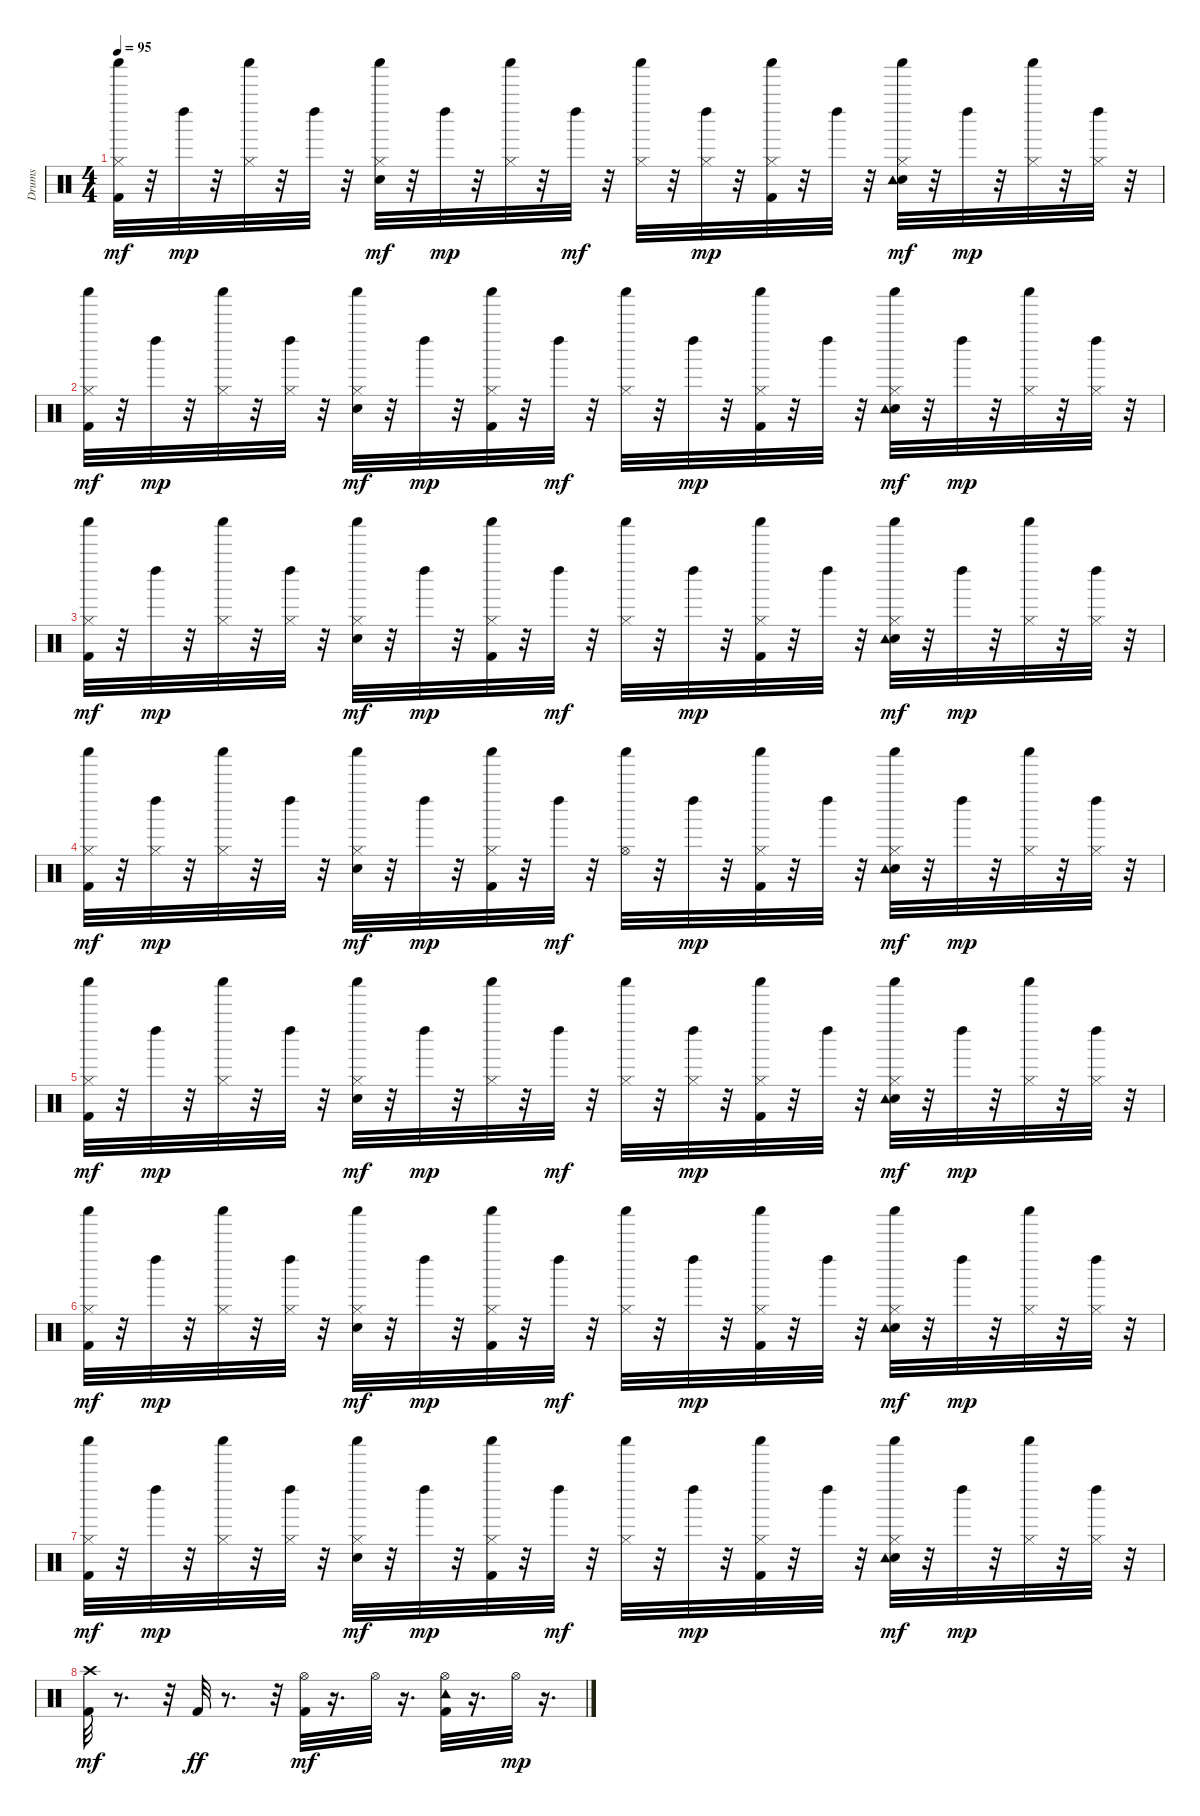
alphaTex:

\track ("Drums" "Drums") {instrument percussion}
\staff {score}
\articulation defaults
\ts (4 4)
\tempo 95
\clef neutral
\ks c
("Kick (hit) 2" "Hi-Hat (closed)" "Shaker (hit)").32{dy mf} r.32 "Left Maraca (hit)".32{dy mp} r.32 ("Hi-Hat (closed)" "Shaker (hit)").32 r.32 "Left Maraca (hit)".32 r.32 ("Electric Snare (hit)" "Hi-Hat (closed)" "Shaker (hit)").32{dy mf} r.32 "Left Maraca (hit)".32{dy mp} r.32 ("Hi-Hat (closed)" "Shaker (hit)").32 r.32 "Left Maraca (hit)".32{dy mf} r.32 ("Hi-Hat (closed)" "Shaker (hit)").32 r.32 ("Hi-Hat (closed)" "Left Maraca (hit)").32{dy mp} r.32 ("Kick (hit) 2" "Hi-Hat (closed)" "Shaker (hit)").32 r.32 "Left Maraca (hit)".32 r.32 ("Electric Snare (hit)" "Hi-Hat (closed)" "Tambourine (hit)" "Shaker (hit)").32{dy mf} r.32 "Left Maraca (hit)".32{dy mp} r.32 ("Hi-Hat (closed)" "Shaker (hit)").32 r.32 ("Hi-Hat (closed)" "Left Maraca (hit)").32 r.32 |
("Kick (hit) 2" "Hi-Hat (closed)" "Shaker (hit)").32{dy mf} r.32 "Left Maraca (hit)".32{dy mp} r.32 ("Hi-Hat (closed)" "Shaker (hit)").32 r.32 ("Hi-Hat (closed)" "Left Maraca (hit)").32 r.32 ("Electric Snare (hit)" "Hi-Hat (closed)" "Shaker (hit)").32{dy mf} r.32 "Left Maraca (hit)".32{dy mp} r.32 ("Kick (hit) 2" "Hi-Hat (closed)" "Shaker (hit)").32 r.32 "Left Maraca (hit)".32{dy mf} r.32 ("Hi-Hat (closed)" "Shaker (hit)").32 r.32 "Left Maraca (hit)".32{dy mp} r.32 ("Kick (hit) 2" "Hi-Hat (closed)" "Shaker (hit)").32 r.32 "Left Maraca (hit)".32 r.32 ("Electric Snare (hit)" "Hi-Hat (closed)" "Tambourine (hit)" "Shaker (hit)").32{dy mf} r.32 "Left Maraca (hit)".32{dy mp} r.32 ("Hi-Hat (closed)" "Shaker (hit)").32 r.32 ("Hi-Hat (closed)" "Left Maraca (hit)").32 r.32 |
("Kick (hit) 2" "Hi-Hat (closed)" "Shaker (hit)").32{dy mf} r.32 "Left Maraca (hit)".32{dy mp} r.32 ("Hi-Hat (closed)" "Shaker (hit)").32 r.32 ("Hi-Hat (closed)" "Left Maraca (hit)").32 r.32 ("Electric Snare (hit)" "Hi-Hat (closed)" "Shaker (hit)").32{dy mf} r.32 "Left Maraca (hit)".32{dy mp} r.32 ("Kick (hit) 2" "Hi-Hat (closed)" "Shaker (hit)").32 r.32 "Left Maraca (hit)".32{dy mf} r.32 ("Hi-Hat (closed)" "Shaker (hit)").32 r.32 "Left Maraca (hit)".32{dy mp} r.32 ("Kick (hit) 2" "Hi-Hat (closed)" "Shaker (hit)").32 r.32 "Left Maraca (hit)".32 r.32 ("Electric Snare (hit)" "Hi-Hat (closed)" "Tambourine (hit)" "Shaker (hit)").32{dy mf} r.32 "Left Maraca (hit)".32{dy mp} r.32 ("Hi-Hat (closed)" "Shaker (hit)").32 r.32 ("Hi-Hat (closed)" "Left Maraca (hit)").32 r.32 |
("Kick (hit) 2" "Hi-Hat (closed)" "Shaker (hit)").32{dy mf} r.32 ("Hi-Hat (closed)" "Left Maraca (hit)").32{dy mp} r.32 ("Hi-Hat (closed)" "Shaker (hit)").32 r.32 "Left Maraca (hit)".32 r.32 ("Electric Snare (hit)" "Hi-Hat (closed)" "Shaker (hit)").32{dy mf} r.32 "Left Maraca (hit)".32{dy mp} r.32 ("Kick (hit) 2" "Hi-Hat (closed)" "Shaker (hit)").32 r.32 "Left Maraca (hit)".32{dy mf} r.32 ("Hi-Hat (open)" "Shaker (hit)").32 r.32 "Left Maraca (hit)".32{dy mp} r.32 ("Kick (hit) 2" "Hi-Hat (closed)" "Shaker (hit)").32 r.32 "Left Maraca (hit)".32 r.32 ("Electric Snare (hit)" "Hi-Hat (closed)" "Tambourine (hit)" "Shaker (hit)").32{dy mf} r.32 "Left Maraca (hit)".32{dy mp} r.32 ("Hi-Hat (closed)" "Shaker (hit)").32 r.32 ("Hi-Hat (closed)" "Left Maraca (hit)").32 r.32 |
("Kick (hit) 2" "Hi-Hat (closed)" "Shaker (hit)").32{dy mf} r.32 "Left Maraca (hit)".32{dy mp} r.32 ("Hi-Hat (closed)" "Shaker (hit)").32 r.32 "Left Maraca (hit)".32 r.32 ("Electric Snare (hit)" "Hi-Hat (closed)" "Shaker (hit)").32{dy mf} r.32 "Left Maraca (hit)".32{dy mp} r.32 ("Hi-Hat (closed)" "Shaker (hit)").32 r.32 "Left Maraca (hit)".32{dy mf} r.32 ("Hi-Hat (closed)" "Shaker (hit)").32 r.32 ("Hi-Hat (closed)" "Left Maraca (hit)").32{dy mp} r.32 ("Kick (hit) 2" "Hi-Hat (closed)" "Shaker (hit)").32 r.32 "Left Maraca (hit)".32 r.32 ("Electric Snare (hit)" "Hi-Hat (closed)" "Tambourine (hit)" "Shaker (hit)").32{dy mf} r.32 "Left Maraca (hit)".32{dy mp} r.32 ("Hi-Hat (closed)" "Shaker (hit)").32 r.32 ("Hi-Hat (closed)" "Left Maraca (hit)").32 r.32 |
("Kick (hit) 2" "Hi-Hat (closed)" "Shaker (hit)").32{dy mf} r.32 "Left Maraca (hit)".32{dy mp} r.32 ("Hi-Hat (closed)" "Shaker (hit)").32 r.32 ("Hi-Hat (closed)" "Left Maraca (hit)").32 r.32 ("Electric Snare (hit)" "Hi-Hat (closed)" "Shaker (hit)").32{dy mf} r.32 "Left Maraca (hit)".32{dy mp} r.32 ("Kick (hit) 2" "Hi-Hat (closed)" "Shaker (hit)").32 r.32 "Left Maraca (hit)".32{dy mf} r.32 ("Hi-Hat (closed)" "Shaker (hit)").32 r.32 "Left Maraca (hit)".32{dy mp} r.32 ("Kick (hit) 2" "Hi-Hat (closed)" "Shaker (hit)").32 r.32 "Left Maraca (hit)".32 r.32 ("Electric Snare (hit)" "Hi-Hat (closed)" "Tambourine (hit)" "Shaker (hit)").32{dy mf} r.32 "Left Maraca (hit)".32{dy mp} r.32 ("Hi-Hat (closed)" "Shaker (hit)").32 r.32 ("Hi-Hat (closed)" "Left Maraca (hit)").32 r.32 |
("Kick (hit) 2" "Hi-Hat (closed)" "Shaker (hit)").32{dy mf} r.32 "Left Maraca (hit)".32{dy mp} r.32 ("Hi-Hat (closed)" "Shaker (hit)").32 r.32 ("Hi-Hat (closed)" "Left Maraca (hit)").32 r.32 ("Electric Snare (hit)" "Hi-Hat (closed)" "Shaker (hit)").32{dy mf} r.32 "Left Maraca (hit)".32{dy mp} r.32 ("Kick (hit) 2" "Hi-Hat (closed)" "Shaker (hit)").32 r.32 "Left Maraca (hit)".32{dy mf} r.32 ("Hi-Hat (closed)" "Shaker (hit)").32 r.32 "Left Maraca (hit)".32{dy mp} r.32 ("Kick (hit) 2" "Hi-Hat (closed)" "Shaker (hit)").32 r.32 "Left Maraca (hit)".32 r.32 ("Electric Snare (hit)" "Hi-Hat (closed)" "Tambourine (hit)" "Shaker (hit)").32{dy mf} r.32 "Left Maraca (hit)".32{dy mp} r.32 ("Hi-Hat (closed)" "Shaker (hit)").32 r.32 ("Hi-Hat (closed)" "Left Maraca (hit)").32 r.32 |
("Kick (hit) 2" "Crash high (hit)").32{dy mf} r.8{d} r.32 "Kick (hit) 2".32{dy ff} r.8{d} r.32 ("Kick (hit) 2" "Hi-Hat (open)").32{dy mf} r.16{d} "Hi-Hat (open)".32 r.16{d} ("Kick (hit) 2" "Hi-Hat (open)" "Tambourine (hit)").32 r.16{d} "Hi-Hat (open)".32{dy mp} r.16{d}
